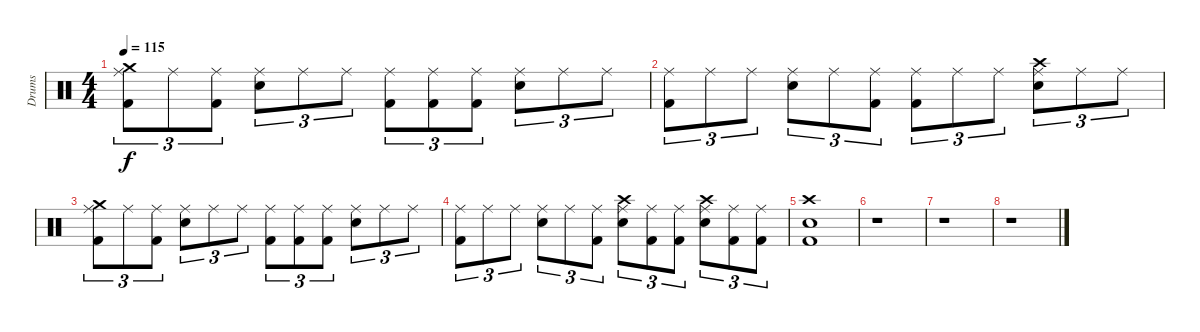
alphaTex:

\track ("Drums" "Drums") {instrument percussion}
\staff {score}
\articulation defaults
\ts (4 4)
\tempo 115
\clef neutral
\ks c
("Crash medium (hit)" "Ride (middle)" "Kick (hit) 2").8{tu (3 2) dy f} "Ride (middle)".8{tu (3 2)} ("Ride (middle)" "Kick (hit) 2").8{tu (3 2)} ("Ride (middle)" "Snare (hit) 2").8{tu (3 2)} "Ride (middle)".8{tu (3 2)} "Ride (middle)".8{tu (3 2)} ("Ride (middle)" "Kick (hit) 2").8{tu (3 2)} ("Ride (middle)" "Kick (hit) 2").8{tu (3 2)} ("Ride (middle)" "Kick (hit) 2").8{tu (3 2)} ("Ride (middle)" "Snare (hit) 2").8{tu (3 2)} "Ride (middle)".8{tu (3 2)} "Ride (middle)".8{tu (3 2)} |
("Ride (middle)" "Kick (hit) 2").8{tu (3 2)} "Ride (middle)".8{tu (3 2)} "Ride (middle)".8{tu (3 2)} ("Ride (middle)" "Snare (hit) 2").8{tu (3 2)} "Ride (middle)".8{tu (3 2)} ("Ride (middle)" "Kick (hit) 2").8{tu (3 2)} ("Ride (middle)" "Kick (hit) 2").8{tu (3 2)} "Ride (middle)".8{tu (3 2)} "Ride (middle)".8{tu (3 2)} ("Crash high (hit)" "Ride (middle)" "Snare (hit) 2").8{tu (3 2)} "Ride (middle)".8{tu (3 2)} "Ride (middle)".8{tu (3 2)} |
("Crash medium (hit)" "Ride (middle)" "Kick (hit) 2").8{tu (3 2)} "Ride (middle)".8{tu (3 2)} ("Ride (middle)" "Kick (hit) 2").8{tu (3 2)} ("Ride (middle)" "Snare (hit) 2").8{tu (3 2)} "Ride (middle)".8{tu (3 2)} "Ride (middle)".8{tu (3 2)} ("Ride (middle)" "Kick (hit) 2").8{tu (3 2)} ("Ride (middle)" "Kick (hit) 2").8{tu (3 2)} ("Ride (middle)" "Kick (hit) 2").8{tu (3 2)} ("Ride (middle)" "Snare (hit) 2").8{tu (3 2)} "Ride (middle)".8{tu (3 2)} "Ride (middle)".8{tu (3 2)} |
("Ride (middle)" "Kick (hit) 2").8{tu (3 2)} "Ride (middle)".8{tu (3 2)} "Ride (middle)".8{tu (3 2)} ("Ride (middle)" "Snare (hit) 2").8{tu (3 2)} "Ride (middle)".8{tu (3 2)} ("Ride (middle)" "Kick (hit) 2").8{tu (3 2)} ("Crash high (hit)" "Ride (middle)" "Snare (hit) 2").8{tu (3 2)} ("Ride (middle)" "Kick (hit) 2").8{tu (3 2)} ("Ride (middle)" "Kick (hit) 2").8{tu (3 2)} ("Crash high (hit)" "Ride (middle)" "Snare (hit) 2").8{tu (3 2)} ("Ride (middle)" "Kick (hit) 2").8{tu (3 2)} ("Ride (middle)" "Kick (hit) 2").8{tu (3 2)} |
("Crash high (hit)" "Snare (hit) 2" "Kick (hit) 2").1 |
r.1 |
r.1 |
r.1
